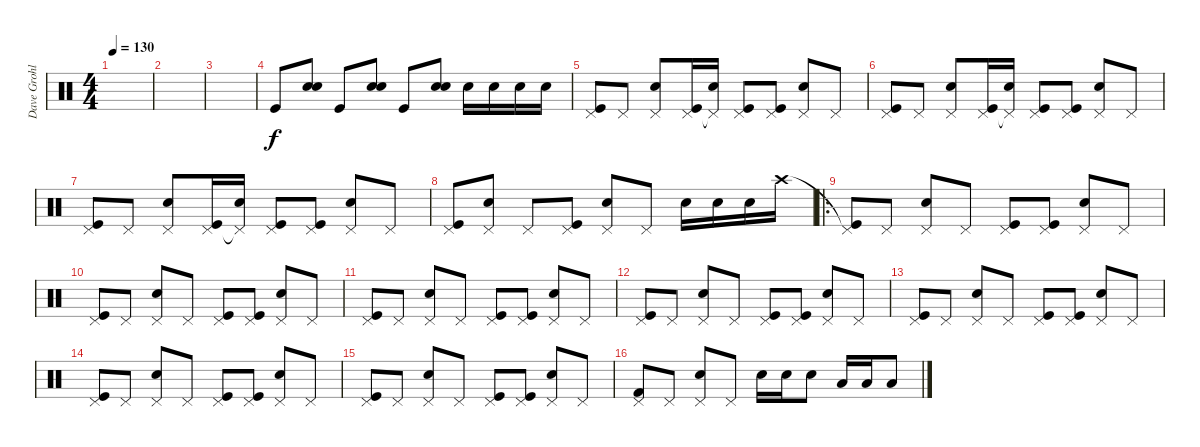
\track ("Dave Grohl" "Dave Grohl") {instrument percussion}
\staff {score}
\articulation defaults
\ts (4 4)
\tempo 130
\clef neutral
\ks c
|
|
|
"Kick (hit)".8 ("Snare (hit) 2" "Snare (hit) 2").8 "Kick (hit)".8 ("Snare (hit) 2" "Snare (hit) 2").8 "Kick (hit)".8 ("Snare (hit) 2" "Snare (hit) 2").8 "Snare (hit) 2".16 "Snare (hit) 2".16 "Snare (hit) 2".16 "Snare (hit) 2".16 |
("Pedal Hi-Hat (hit)" "Kick (hit)").8 "Pedal Hi-Hat (hit)".8 ("Pedal Hi-Hat (hit)" "Snare (hit) 2").8 ("Pedal Hi-Hat (hit)" "Kick (hit)").16 ("Pedal Hi-Hat (hit)"{t} "Snare (hit) 2").16 ("Pedal Hi-Hat (hit)" "Kick (hit)").8 ("Pedal Hi-Hat (hit)" "Kick (hit)").8 ("Pedal Hi-Hat (hit)" "Snare (hit) 2").8 "Pedal Hi-Hat (hit)".8 |
("Pedal Hi-Hat (hit)" "Kick (hit)").8 "Pedal Hi-Hat (hit)".8 ("Pedal Hi-Hat (hit)" "Snare (hit) 2").8 ("Pedal Hi-Hat (hit)" "Kick (hit)").16 ("Pedal Hi-Hat (hit)"{t} "Snare (hit) 2").16 ("Pedal Hi-Hat (hit)" "Kick (hit)").8 ("Pedal Hi-Hat (hit)" "Kick (hit)").8 ("Pedal Hi-Hat (hit)" "Snare (hit) 2").8 "Pedal Hi-Hat (hit)".8 |
("Pedal Hi-Hat (hit)" "Kick (hit)").8 "Pedal Hi-Hat (hit)".8 ("Pedal Hi-Hat (hit)" "Snare (hit) 2").8 ("Pedal Hi-Hat (hit)" "Kick (hit)").16 ("Pedal Hi-Hat (hit)"{t} "Snare (hit) 2").16 ("Pedal Hi-Hat (hit)" "Kick (hit)").8 ("Pedal Hi-Hat (hit)" "Kick (hit)").8 ("Pedal Hi-Hat (hit)" "Snare (hit) 2").8 "Pedal Hi-Hat (hit)".8 |
("Pedal Hi-Hat (hit)" "Kick (hit)").8 ("Pedal Hi-Hat (hit)" "Snare (hit) 2").8 "Pedal Hi-Hat (hit)".8 ("Pedal Hi-Hat (hit)" "Kick (hit)").8 ("Pedal Hi-Hat (hit)" "Snare (hit) 2").8 "Pedal Hi-Hat (hit)".8 "Snare (hit) 2".16 "Snare (hit) 2".16 "Snare (hit) 2".16 "Crash high (hit)".16 |
\ro
("Pedal Hi-Hat (hit)"{t} "Kick (hit)").8 "Pedal Hi-Hat (hit)".8 ("Pedal Hi-Hat (hit)" "Snare (hit) 2").8 "Pedal Hi-Hat (hit)".8 ("Pedal Hi-Hat (hit)" "Kick (hit)").8 ("Pedal Hi-Hat (hit)" "Kick (hit)").8 ("Pedal Hi-Hat (hit)" "Snare (hit) 2").8 "Pedal Hi-Hat (hit)".8 |
("Pedal Hi-Hat (hit)" "Kick (hit)").8 "Pedal Hi-Hat (hit)".8 ("Pedal Hi-Hat (hit)" "Snare (hit) 2").8 "Pedal Hi-Hat (hit)".8 ("Pedal Hi-Hat (hit)" "Kick (hit)").8 ("Pedal Hi-Hat (hit)" "Kick (hit)").8 ("Pedal Hi-Hat (hit)" "Snare (hit) 2").8 "Pedal Hi-Hat (hit)".8 |
("Pedal Hi-Hat (hit)" "Kick (hit)").8 "Pedal Hi-Hat (hit)".8 ("Pedal Hi-Hat (hit)" "Snare (hit) 2").8 "Pedal Hi-Hat (hit)".8 ("Pedal Hi-Hat (hit)" "Kick (hit)").8 ("Pedal Hi-Hat (hit)" "Kick (hit)").8 ("Pedal Hi-Hat (hit)" "Snare (hit) 2").8 "Pedal Hi-Hat (hit)".8 |
("Pedal Hi-Hat (hit)" "Kick (hit)").8 "Pedal Hi-Hat (hit)".8 ("Pedal Hi-Hat (hit)" "Snare (hit) 2").8 "Pedal Hi-Hat (hit)".8 ("Pedal Hi-Hat (hit)" "Kick (hit)").8 ("Pedal Hi-Hat (hit)" "Kick (hit)").8 ("Pedal Hi-Hat (hit)" "Snare (hit) 2").8 "Pedal Hi-Hat (hit)".8 |
("Pedal Hi-Hat (hit)" "Kick (hit)").8 "Pedal Hi-Hat (hit)".8 ("Pedal Hi-Hat (hit)" "Snare (hit) 2").8 "Pedal Hi-Hat (hit)".8 ("Pedal Hi-Hat (hit)" "Kick (hit)").8 ("Pedal Hi-Hat (hit)" "Kick (hit)").8 ("Pedal Hi-Hat (hit)" "Snare (hit) 2").8 "Pedal Hi-Hat (hit)".8 |
("Pedal Hi-Hat (hit)" "Kick (hit)").8 "Pedal Hi-Hat (hit)".8 ("Pedal Hi-Hat (hit)" "Snare (hit) 2").8 "Pedal Hi-Hat (hit)".8 ("Pedal Hi-Hat (hit)" "Kick (hit)").8 ("Pedal Hi-Hat (hit)" "Kick (hit)").8 ("Pedal Hi-Hat (hit)" "Snare (hit) 2").8 "Pedal Hi-Hat (hit)".8 |
("Pedal Hi-Hat (hit)" "Kick (hit)").8 "Pedal Hi-Hat (hit)".8 ("Pedal Hi-Hat (hit)" "Snare (hit) 2").8 "Pedal Hi-Hat (hit)".8 ("Pedal Hi-Hat (hit)" "Kick (hit)").8 ("Pedal Hi-Hat (hit)" "Kick (hit)").8 ("Pedal Hi-Hat (hit)" "Snare (hit) 2").8 "Pedal Hi-Hat (hit)".8 |
("Pedal Hi-Hat (hit)" "Kick (hit) 2").8 "Pedal Hi-Hat (hit)".8 ("Pedal Hi-Hat (hit)" "Snare (hit) 2").8 "Pedal Hi-Hat (hit)".8 "Snare (hit) 2".16 "Snare (hit) 2".16 "Snare (hit) 2".8 "Low Tom (hit)".16 "Low Tom (hit)".16 "Low Tom (hit)".8
